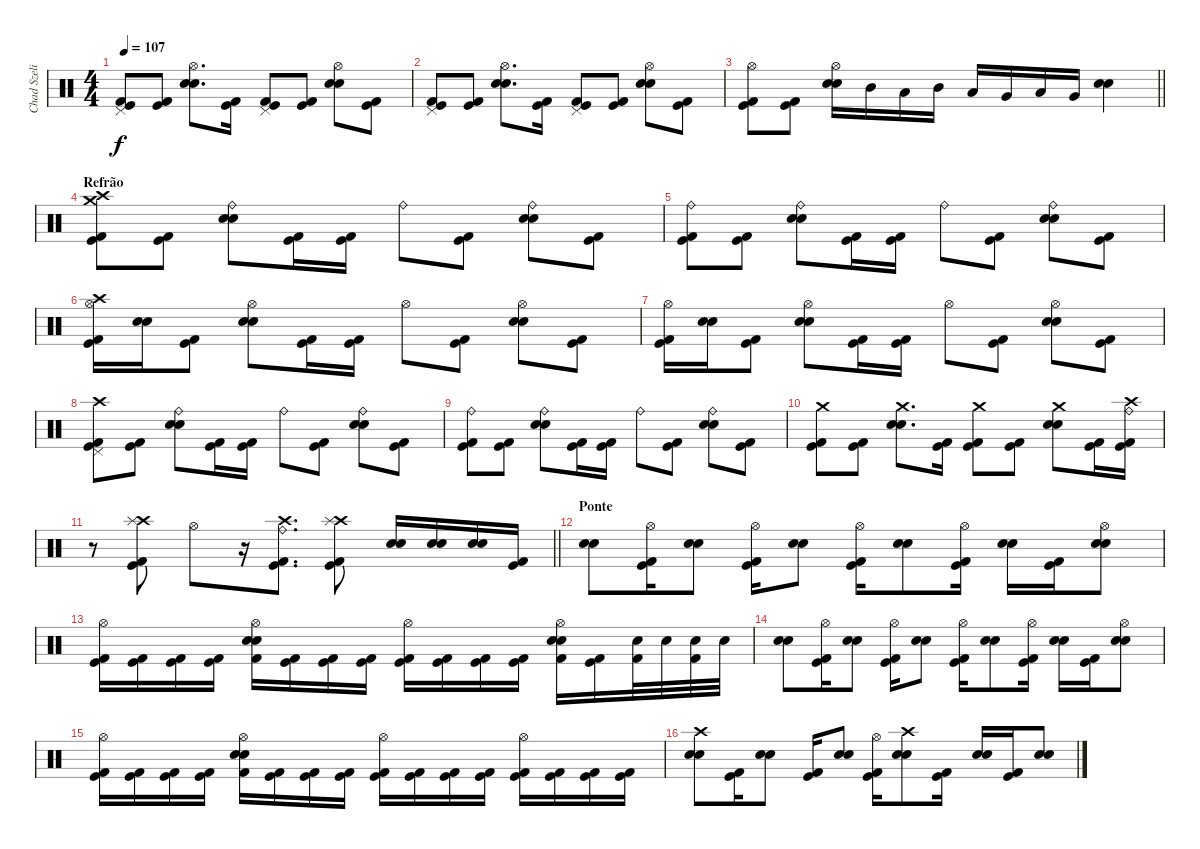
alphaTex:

\track ("Chad Szeliga" "Chad Szeli") {instrument percussion}
\staff {score}
\articulation defaults
\ts (4 4)
\tempo 107
\clef neutral
\ks c
("Kick (hit) 2" "Kick (hit)" "Pedal Hi-Hat (hit)").8{dy f} ("Kick (hit) 2" "Kick (hit)").8 ("Snare (hit) 2" "Snare (hit) 2" "Hi-Hat (open)").8{d} ("Kick (hit) 2" "Kick (hit)").16 ("Kick (hit) 2" "Kick (hit)" "Pedal Hi-Hat (hit)").8 ("Kick (hit) 2" "Kick (hit)").8 ("Snare (hit) 2" "Snare (hit) 2" "Hi-Hat (open)").8 ("Kick (hit) 2" "Kick (hit)").8 |
("Kick (hit) 2" "Kick (hit)" "Pedal Hi-Hat (hit)").8 ("Kick (hit) 2" "Kick (hit)").8 ("Snare (hit) 2" "Snare (hit) 2" "Hi-Hat (open)").8{d} ("Kick (hit) 2" "Kick (hit)").16 ("Kick (hit) 2" "Kick (hit)" "Pedal Hi-Hat (hit)").8 ("Kick (hit) 2" "Kick (hit)").8 ("Snare (hit) 2" "Snare (hit) 2" "Hi-Hat (open)").8 ("Kick (hit) 2" "Kick (hit)").8 |
\barLineRight lightlight
("Kick (hit) 2" "Kick (hit)" "Hi-Hat (open)").8 ("Kick (hit) 2" "Kick (hit)").8 ("Snare (hit) 2" "Snare (hit) 2" "Hi-Hat (open)").16 "Mid Tom (hit)".16 "Low Tom (hit)".16 "Mid Tom (hit)".16 "Low Tom (hit)".16 "Very Low Tom (hit)".16 "Low Tom (hit)".16 "Very Low Tom (hit)".16 ("Snare (hit) 2" "Snare (hit) 2").4 |
\section ("" "Refrão")
("Crash high (hit)" "Kick (hit) 2" "Kick (hit)" "Crash medium (hit)").8 ("Kick (hit) 2" "Kick (hit)").8 ("Snare (hit) 2" "Snare (hit) 2" "Ride (bell)").8 ("Kick (hit) 2" "Kick (hit)").16 ("Kick (hit) 2" "Kick (hit)").16 "Ride (bell)".8 ("Kick (hit) 2" "Kick (hit)").8 ("Snare (hit) 2" "Snare (hit) 2" "Ride (bell)").8 ("Kick (hit) 2" "Kick (hit)").8 |
("Kick (hit) 2" "Kick (hit)" "Ride (bell)").8 ("Kick (hit) 2" "Kick (hit)").8 ("Snare (hit) 2" "Snare (hit) 2" "Ride (bell)").8 ("Kick (hit) 2" "Kick (hit)").16 ("Kick (hit) 2" "Kick (hit)").16 "Ride (bell)".8 ("Kick (hit) 2" "Kick (hit)").8 ("Snare (hit) 2" "Snare (hit) 2" "Ride (bell)").8 ("Kick (hit) 2" "Kick (hit)").8 |
("Crash high (hit)" "Kick (hit) 2" "Kick (hit)" "Hi-Hat (open)").16 ("Snare (hit) 2" "Snare (hit) 2").16 ("Kick (hit) 2" "Kick (hit)").8 ("Snare (hit) 2" "Snare (hit) 2" "Hi-Hat (open)").8 ("Kick (hit) 2" "Kick (hit)").16 ("Kick (hit) 2" "Kick (hit)").16 "Hi-Hat (open)".8 ("Kick (hit) 2" "Kick (hit)").8 ("Snare (hit) 2" "Snare (hit) 2" "Hi-Hat (open)").8 ("Kick (hit) 2" "Kick (hit)").8 |
("Kick (hit) 2" "Kick (hit)" "Hi-Hat (open)").16 ("Snare (hit) 2" "Snare (hit) 2").16 ("Kick (hit) 2" "Kick (hit)").8 ("Snare (hit) 2" "Snare (hit) 2" "Hi-Hat (open)").8 ("Kick (hit) 2" "Kick (hit)").16 ("Kick (hit) 2" "Kick (hit)").16 "Hi-Hat (open)".8 ("Kick (hit) 2" "Kick (hit)").8 ("Snare (hit) 2" "Snare (hit) 2" "Hi-Hat (open)").8 ("Kick (hit) 2" "Kick (hit)").8 |
("Crash high (hit)" "Kick (hit) 2" "Kick (hit)" "Pedal Hi-Hat (hit)").8 ("Kick (hit) 2" "Kick (hit)").8 ("Snare (hit) 2" "Snare (hit) 2" "Ride (bell)").8 ("Kick (hit) 2" "Kick (hit)").16 ("Kick (hit) 2" "Kick (hit)").16 "Ride (bell)".8 ("Kick (hit) 2" "Kick (hit)").8 ("Snare (hit) 2" "Snare (hit) 2" "Ride (bell)").8 ("Kick (hit) 2" "Kick (hit)").8 |
("Kick (hit) 2" "Kick (hit)" "Ride (bell)").8 ("Kick (hit) 2" "Kick (hit)").8 ("Snare (hit) 2" "Snare (hit) 2" "Ride (bell)").8 ("Kick (hit) 2" "Kick (hit)").16 ("Kick (hit) 2" "Kick (hit)").16 "Ride (bell)".8 ("Kick (hit) 2" "Kick (hit)").8 ("Snare (hit) 2" "Snare (hit) 2" "Ride (bell)").8 ("Kick (hit) 2" "Kick (hit)").8 |
("Crash medium (hit)" "Kick (hit) 2" "Kick (hit)").8 ("Kick (hit) 2" "Kick (hit)").8 ("Crash medium (hit)" "Snare (hit) 2" "Snare (hit) 2").8{d} ("Kick (hit) 2" "Kick (hit)").16 ("Crash medium (hit)" "Kick (hit) 2" "Kick (hit)").8 ("Kick (hit) 2" "Kick (hit)").8 ("Crash medium (hit)" "Snare (hit) 2" "Snare (hit) 2").8 ("Kick (hit) 2" "Kick (hit)").16 ("Crash high (hit)" "Kick (hit) 2" "Kick (hit)" "Ride (bell)").16 |
\barLineRight lightlight
r.8 ("Crash high (hit)" "Kick (hit) 2" "Kick (hit)" "Splash (hit)").8 "Hi-Hat (open)".8 r.16 ("Crash high (hit)" "Kick (hit) 2" "Kick (hit)" "Ride (bell)").8{d} ("Crash high (hit)" "Kick (hit) 2" "Kick (hit)" "Splash (hit)").8 ("Snare (hit) 2" "Snare (hit) 2").16 ("Snare (hit) 2" "Snare (hit) 2").16 ("Snare (hit) 2" "Snare (hit) 2").16 ("Kick (hit) 2" "Kick (hit)").16 |
\section ("" "Ponte")
("Snare (hit) 2" "Snare (hit) 2").8 ("Kick (hit) 2" "Kick (hit)" "Hi-Hat (open)").16 ("Snare (hit) 2" "Snare (hit) 2").8 ("Kick (hit) 2" "Kick (hit)" "Hi-Hat (open)").16 ("Snare (hit) 2" "Snare (hit) 2").8 ("Kick (hit) 2" "Kick (hit)" "Hi-Hat (open)").16 ("Snare (hit) 2" "Snare (hit) 2").8 ("Kick (hit) 2" "Kick (hit)" "Hi-Hat (open)").16 ("Snare (hit) 2" "Snare (hit) 2").16 ("Kick (hit) 2" "Kick (hit)").16 ("Snare (hit) 2" "Snare (hit) 2" "Hi-Hat (open)").8 |
("Kick (hit) 2" "Kick (hit)" "Hi-Hat (open)").16 ("Kick (hit) 2" "Kick (hit)").16 ("Kick (hit) 2" "Kick (hit)").16 ("Kick (hit) 2" "Kick (hit)").16 ("Kick (hit) 2" "Snare (hit) 2" "Snare (hit) 2" "Hi-Hat (open)").16 ("Kick (hit) 2" "Kick (hit)").16 ("Kick (hit) 2" "Kick (hit)").16 ("Kick (hit) 2" "Kick (hit)").16 ("Kick (hit) 2" "Kick (hit)" "Hi-Hat (open)").16 ("Kick (hit) 2" "Kick (hit)").16 ("Kick (hit) 2" "Kick (hit)").16 ("Kick (hit) 2" "Kick (hit)").16 ("Kick (hit) 2" "Snare (hit) 2" "Snare (hit) 2" "Hi-Hat (open)").16 ("Kick (hit) 2" "Kick (hit)").16 ("Kick (hit) 2" "Snare (hit) 2").32 "Snare (hit) 2".32 ("Kick (hit) 2" "Snare (hit) 2").32 "Snare (hit) 2".32 |
("Snare (hit) 2" "Snare (hit) 2").8 ("Kick (hit) 2" "Kick (hit)" "Hi-Hat (open)").16 ("Snare (hit) 2" "Snare (hit) 2").8 ("Kick (hit) 2" "Kick (hit)" "Hi-Hat (open)").16 ("Snare (hit) 2" "Snare (hit) 2").8 ("Kick (hit) 2" "Kick (hit)" "Hi-Hat (open)").16 ("Snare (hit) 2" "Snare (hit) 2").8 ("Kick (hit) 2" "Kick (hit)" "Hi-Hat (open)").16 ("Snare (hit) 2" "Snare (hit) 2").16 ("Kick (hit) 2" "Kick (hit)").16 ("Snare (hit) 2" "Snare (hit) 2" "Hi-Hat (open)").8 |
("Kick (hit) 2" "Kick (hit)" "Hi-Hat (open)").16 ("Kick (hit) 2" "Kick (hit)").16 ("Kick (hit) 2" "Kick (hit)").16 ("Kick (hit) 2" "Kick (hit)").16 ("Kick (hit) 2" "Snare (hit) 2" "Snare (hit) 2" "Hi-Hat (open)").16 ("Kick (hit) 2" "Kick (hit)").16 ("Kick (hit) 2" "Kick (hit)").16 ("Kick (hit) 2" "Kick (hit)").16 ("Kick (hit) 2" "Kick (hit)" "Hi-Hat (open)").16 ("Kick (hit) 2" "Kick (hit)").16 ("Kick (hit) 2" "Kick (hit)").16 ("Kick (hit) 2" "Kick (hit)").16 ("Kick (hit) 2" "Kick (hit)" "Hi-Hat (open)").16 ("Kick (hit) 2" "Kick (hit)").16 ("Kick (hit) 2" "Kick (hit)").16 ("Kick (hit) 2" "Kick (hit)").16 |
("Crash high (hit)" "Snare (hit) 2" "Snare (hit) 2").8 ("Kick (hit) 2" "Kick (hit)").16 ("Snare (hit) 2" "Snare (hit) 2").8 ("Kick (hit) 2" "Kick (hit)").16 ("Snare (hit) 2" "Snare (hit) 2").8 ("Kick (hit) 2" "Kick (hit)" "Hi-Hat (open)").16 ("Crash high (hit)" "Snare (hit) 2" "Snare (hit) 2").8 ("Kick (hit) 2" "Kick (hit)").16 ("Snare (hit) 2" "Snare (hit) 2").16 ("Kick (hit) 2" "Kick (hit)").16 ("Snare (hit) 2" "Snare (hit) 2").8
